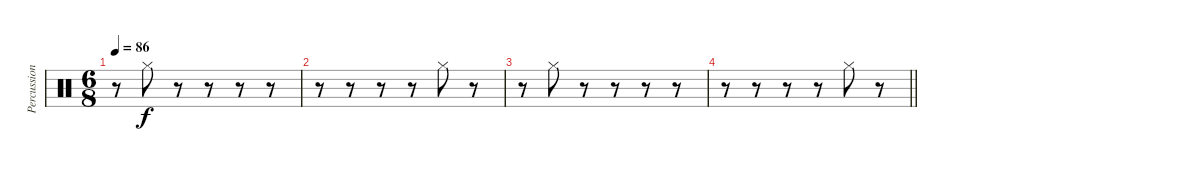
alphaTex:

\track ("Percussion" "Percussion") {instrument percussion}
\staff {score}
\articulation defaults
\ts (6 8)
\tempo 86
\clef neutral
\ks c
r.8{dy f} "Hi-Hat (closed)".8 r.8 r.8 r.8 r.8 |
r.8 r.8 r.8 r.8 "Hi-Hat (closed)".8 r.8 |
r.8 "Hi-Hat (closed)".8 r.8 r.8 r.8 r.8 |
\barLineRight lightlight
r.8 r.8 r.8 r.8 "Hi-Hat (closed)".8 r.8
